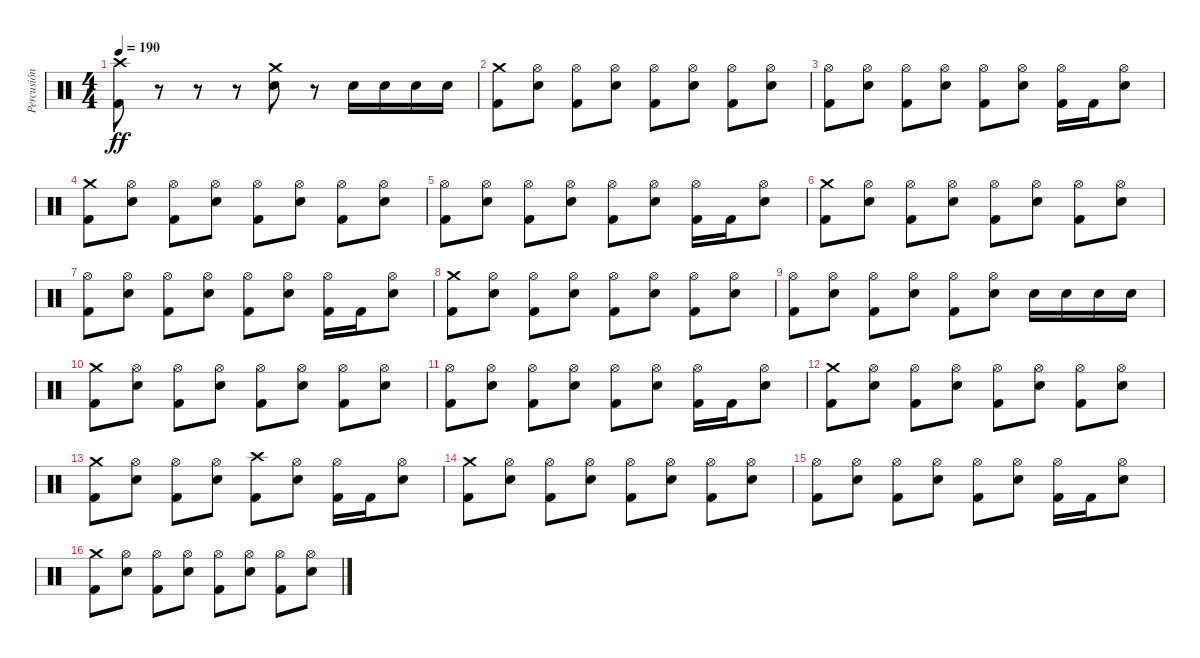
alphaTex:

\track ("Percusión" "Percusión") {instrument percussion}
\staff {score}
\articulation defaults
\ts (4 4)
\tempo 190
\clef neutral
\ks c
("Crash high (hit)" "Kick (hit) 2").8{dy ff} r.8 r.8 r.8 ("Crash medium (hit)" "Snare (hit) 2").8 r.8 "Snare (hit) 2".16 "Snare (hit) 2".16 "Snare (hit) 2".16 "Snare (hit) 2".16 |
("Crash medium (hit)" "Kick (hit) 2").8 ("Hi-Hat (open)" "Snare (hit) 2").8 ("Hi-Hat (open)" "Kick (hit) 2").8 ("Hi-Hat (open)" "Snare (hit) 2").8 ("Hi-Hat (open)" "Kick (hit) 2").8 ("Hi-Hat (open)" "Snare (hit) 2").8 ("Hi-Hat (open)" "Kick (hit) 2").8 ("Hi-Hat (open)" "Snare (hit) 2").8 |
("Hi-Hat (open)" "Kick (hit) 2").8 ("Hi-Hat (open)" "Snare (hit) 2").8 ("Hi-Hat (open)" "Kick (hit) 2").8 ("Hi-Hat (open)" "Snare (hit) 2").8 ("Hi-Hat (open)" "Kick (hit) 2").8 ("Hi-Hat (open)" "Snare (hit) 2").8 ("Hi-Hat (open)" "Kick (hit) 2").16 "Kick (hit) 2".16 ("Hi-Hat (open)" "Snare (hit) 2").8 |
("Crash medium (hit)" "Kick (hit) 2").8 ("Hi-Hat (open)" "Snare (hit) 2").8 ("Hi-Hat (open)" "Kick (hit) 2").8 ("Hi-Hat (open)" "Snare (hit) 2").8 ("Hi-Hat (open)" "Kick (hit) 2").8 ("Hi-Hat (open)" "Snare (hit) 2").8 ("Hi-Hat (open)" "Kick (hit) 2").8 ("Hi-Hat (open)" "Snare (hit) 2").8 |
("Hi-Hat (open)" "Kick (hit) 2").8 ("Hi-Hat (open)" "Snare (hit) 2").8 ("Hi-Hat (open)" "Kick (hit) 2").8 ("Hi-Hat (open)" "Snare (hit) 2").8 ("Hi-Hat (open)" "Kick (hit) 2").8 ("Hi-Hat (open)" "Snare (hit) 2").8 ("Hi-Hat (open)" "Kick (hit) 2").16 "Kick (hit) 2".16 ("Hi-Hat (open)" "Snare (hit) 2").8 |
("Crash medium (hit)" "Kick (hit) 2").8 ("Hi-Hat (open)" "Snare (hit) 2").8 ("Hi-Hat (open)" "Kick (hit) 2").8 ("Hi-Hat (open)" "Snare (hit) 2").8 ("Hi-Hat (open)" "Kick (hit) 2").8 ("Hi-Hat (open)" "Snare (hit) 2").8 ("Hi-Hat (open)" "Kick (hit) 2").8 ("Hi-Hat (open)" "Snare (hit) 2").8 |
("Hi-Hat (open)" "Kick (hit) 2").8 ("Hi-Hat (open)" "Snare (hit) 2").8 ("Hi-Hat (open)" "Kick (hit) 2").8 ("Hi-Hat (open)" "Snare (hit) 2").8 ("Hi-Hat (open)" "Kick (hit) 2").8 ("Hi-Hat (open)" "Snare (hit) 2").8 ("Hi-Hat (open)" "Kick (hit) 2").16 "Kick (hit) 2".16 ("Hi-Hat (open)" "Snare (hit) 2").8 |
("Crash medium (hit)" "Kick (hit) 2").8 ("Hi-Hat (open)" "Snare (hit) 2").8 ("Hi-Hat (open)" "Kick (hit) 2").8 ("Hi-Hat (open)" "Snare (hit) 2").8 ("Hi-Hat (open)" "Kick (hit) 2").8 ("Hi-Hat (open)" "Snare (hit) 2").8 ("Hi-Hat (open)" "Kick (hit) 2").8 ("Hi-Hat (open)" "Snare (hit) 2").8 |
("Hi-Hat (open)" "Kick (hit) 2").8 ("Hi-Hat (open)" "Snare (hit) 2").8 ("Hi-Hat (open)" "Kick (hit) 2").8 ("Hi-Hat (open)" "Snare (hit) 2").8 ("Hi-Hat (open)" "Kick (hit) 2").8 ("Hi-Hat (open)" "Snare (hit) 2").8 "Snare (hit) 2".16 "Snare (hit) 2".16 "Snare (hit) 2".16 "Snare (hit) 2".16 |
("Crash medium (hit)" "Kick (hit) 2").8 ("Hi-Hat (open)" "Snare (hit) 2").8 ("Hi-Hat (open)" "Kick (hit) 2").8 ("Hi-Hat (open)" "Snare (hit) 2").8 ("Hi-Hat (open)" "Kick (hit) 2").8 ("Hi-Hat (open)" "Snare (hit) 2").8 ("Hi-Hat (open)" "Kick (hit) 2").8 ("Hi-Hat (open)" "Snare (hit) 2").8 |
("Hi-Hat (open)" "Kick (hit) 2").8 ("Hi-Hat (open)" "Snare (hit) 2").8 ("Hi-Hat (open)" "Kick (hit) 2").8 ("Hi-Hat (open)" "Snare (hit) 2").8 ("Hi-Hat (open)" "Kick (hit) 2").8 ("Hi-Hat (open)" "Snare (hit) 2").8 ("Hi-Hat (open)" "Kick (hit) 2").16 "Kick (hit) 2".16 ("Hi-Hat (open)" "Snare (hit) 2").8 |
("Crash medium (hit)" "Kick (hit) 2").8 ("Hi-Hat (open)" "Snare (hit) 2").8 ("Hi-Hat (open)" "Kick (hit) 2").8 ("Hi-Hat (open)" "Snare (hit) 2").8 ("Hi-Hat (open)" "Kick (hit) 2").8 ("Hi-Hat (open)" "Snare (hit) 2").8 ("Hi-Hat (open)" "Kick (hit) 2").8 ("Hi-Hat (open)" "Snare (hit) 2").8 |
("Crash medium (hit)" "Kick (hit) 2").8 ("Hi-Hat (open)" "Snare (hit) 2").8 ("Hi-Hat (open)" "Kick (hit) 2").8 ("Hi-Hat (open)" "Snare (hit) 2").8 ("Crash high (hit)" "Kick (hit) 2").8 ("Hi-Hat (open)" "Snare (hit) 2").8 ("Hi-Hat (open)" "Kick (hit) 2").16 "Kick (hit) 2".16 ("Hi-Hat (open)" "Snare (hit) 2").8 |
("Crash medium (hit)" "Kick (hit) 2").8 ("Hi-Hat (open)" "Snare (hit) 2").8 ("Hi-Hat (open)" "Kick (hit) 2").8 ("Hi-Hat (open)" "Snare (hit) 2").8 ("Hi-Hat (open)" "Kick (hit) 2").8 ("Hi-Hat (open)" "Snare (hit) 2").8 ("Hi-Hat (open)" "Kick (hit) 2").8 ("Hi-Hat (open)" "Snare (hit) 2").8 |
("Hi-Hat (open)" "Kick (hit) 2").8 ("Hi-Hat (open)" "Snare (hit) 2").8 ("Hi-Hat (open)" "Kick (hit) 2").8 ("Hi-Hat (open)" "Snare (hit) 2").8 ("Hi-Hat (open)" "Kick (hit) 2").8 ("Hi-Hat (open)" "Snare (hit) 2").8 ("Hi-Hat (open)" "Kick (hit) 2").16 "Kick (hit) 2".16 ("Hi-Hat (open)" "Snare (hit) 2").8 |
("Crash medium (hit)" "Kick (hit) 2").8 ("Hi-Hat (open)" "Snare (hit) 2").8 ("Hi-Hat (open)" "Kick (hit) 2").8 ("Hi-Hat (open)" "Snare (hit) 2").8 ("Hi-Hat (open)" "Kick (hit) 2").8 ("Hi-Hat (open)" "Snare (hit) 2").8 ("Hi-Hat (open)" "Kick (hit) 2").8 ("Hi-Hat (open)" "Snare (hit) 2").8
